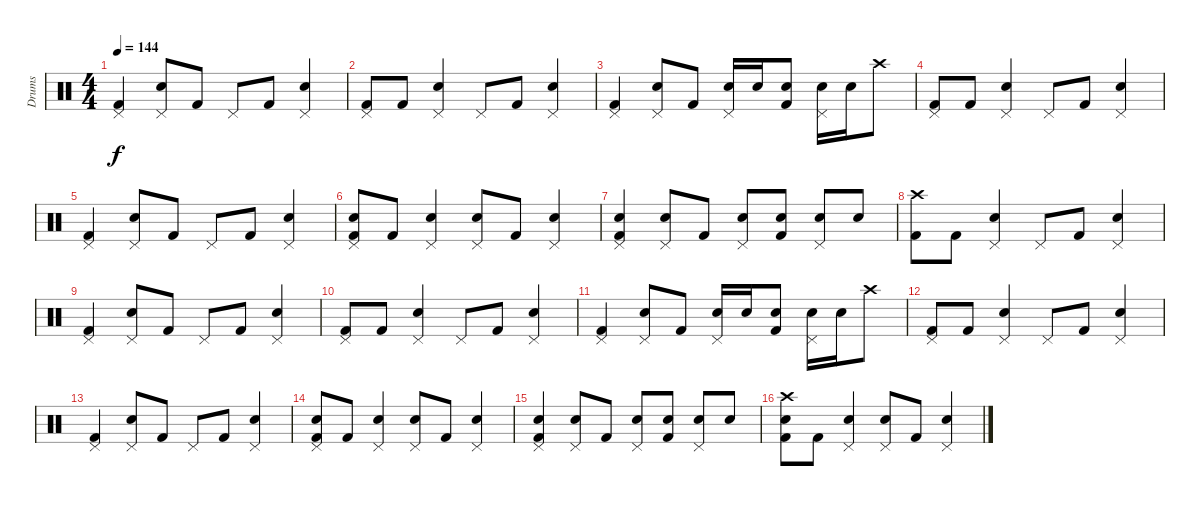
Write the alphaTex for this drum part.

\track ("Drums" "Drums") {instrument percussion}
\staff {score}
\articulation defaults
\ts (4 4)
\tempo 144
\clef neutral
\ks c
("Kick (hit) 2" "Pedal Hi-Hat (hit)").4{dy f} ("Electric Snare (hit)" "Pedal Hi-Hat (hit)").8 "Kick (hit) 2".8 "Pedal Hi-Hat (hit)".8 "Kick (hit) 2".8 ("Electric Snare (hit)" "Pedal Hi-Hat (hit)").4 |
("Pedal Hi-Hat (hit)" "Kick (hit) 2").8 "Kick (hit) 2".8 ("Pedal Hi-Hat (hit)" "Electric Snare (hit)").4 "Pedal Hi-Hat (hit)".8 "Kick (hit) 2".8 ("Pedal Hi-Hat (hit)" "Electric Snare (hit)").4 |
("Kick (hit) 2" "Pedal Hi-Hat (hit)").4 ("Electric Snare (hit)" "Pedal Hi-Hat (hit)").8 "Kick (hit) 2".8 ("Electric Snare (hit)" "Pedal Hi-Hat (hit)").16 "Electric Snare (hit)".16 ("Electric Snare (hit)" "Kick (hit) 2").8 ("Electric Snare (hit)" "Pedal Hi-Hat (hit)").16 "Electric Snare (hit)".16 "Crash high (hit)".8 |
("Pedal Hi-Hat (hit)" "Kick (hit) 2").8 "Kick (hit) 2".8 ("Pedal Hi-Hat (hit)" "Electric Snare (hit)").4 "Pedal Hi-Hat (hit)".8 "Kick (hit) 2".8 ("Pedal Hi-Hat (hit)" "Electric Snare (hit)").4 |
("Kick (hit) 2" "Pedal Hi-Hat (hit)").4 ("Electric Snare (hit)" "Pedal Hi-Hat (hit)").8 "Kick (hit) 2".8 "Pedal Hi-Hat (hit)".8 "Kick (hit) 2".8 ("Electric Snare (hit)" "Pedal Hi-Hat (hit)").4 |
("Electric Snare (hit)" "Pedal Hi-Hat (hit)" "Kick (hit) 2").8 "Kick (hit) 2".8 ("Pedal Hi-Hat (hit)" "Electric Snare (hit)").4 ("Electric Snare (hit)" "Pedal Hi-Hat (hit)").8 "Kick (hit) 2".8 ("Pedal Hi-Hat (hit)" "Electric Snare (hit)").4 |
("Electric Snare (hit)" "Kick (hit) 2" "Pedal Hi-Hat (hit)").4 ("Electric Snare (hit)" "Pedal Hi-Hat (hit)").8 "Kick (hit) 2".8 ("Electric Snare (hit)" "Pedal Hi-Hat (hit)").8 ("Electric Snare (hit)" "Kick (hit) 2").8 ("Electric Snare (hit)" "Pedal Hi-Hat (hit)").8 "Electric Snare (hit)".8 |
("Crash high (hit)" "Kick (hit) 2").8 "Kick (hit) 2".8 ("Pedal Hi-Hat (hit)" "Electric Snare (hit)").4 "Pedal Hi-Hat (hit)".8 "Kick (hit) 2".8 ("Pedal Hi-Hat (hit)" "Electric Snare (hit)").4 |
("Kick (hit) 2" "Pedal Hi-Hat (hit)").4 ("Electric Snare (hit)" "Pedal Hi-Hat (hit)").8 "Kick (hit) 2".8 "Pedal Hi-Hat (hit)".8 "Kick (hit) 2".8 ("Electric Snare (hit)" "Pedal Hi-Hat (hit)").4 |
("Pedal Hi-Hat (hit)" "Kick (hit) 2").8 "Kick (hit) 2".8 ("Pedal Hi-Hat (hit)" "Electric Snare (hit)").4 "Pedal Hi-Hat (hit)".8 "Kick (hit) 2".8 ("Pedal Hi-Hat (hit)" "Electric Snare (hit)").4 |
("Kick (hit) 2" "Pedal Hi-Hat (hit)").4 ("Electric Snare (hit)" "Pedal Hi-Hat (hit)").8 "Kick (hit) 2".8 ("Electric Snare (hit)" "Pedal Hi-Hat (hit)").16 "Electric Snare (hit)".16 ("Electric Snare (hit)" "Kick (hit) 2").8 ("Electric Snare (hit)" "Pedal Hi-Hat (hit)").16 "Electric Snare (hit)".16 "Crash high (hit)".8 |
("Pedal Hi-Hat (hit)" "Kick (hit) 2").8 "Kick (hit) 2".8 ("Pedal Hi-Hat (hit)" "Electric Snare (hit)").4 "Pedal Hi-Hat (hit)".8 "Kick (hit) 2".8 ("Pedal Hi-Hat (hit)" "Electric Snare (hit)").4 |
("Kick (hit) 2" "Pedal Hi-Hat (hit)").4 ("Electric Snare (hit)" "Pedal Hi-Hat (hit)").8 "Kick (hit) 2".8 "Pedal Hi-Hat (hit)".8 "Kick (hit) 2".8 ("Electric Snare (hit)" "Pedal Hi-Hat (hit)").4 |
("Electric Snare (hit)" "Pedal Hi-Hat (hit)" "Kick (hit) 2").8 "Kick (hit) 2".8 ("Pedal Hi-Hat (hit)" "Electric Snare (hit)").4 ("Electric Snare (hit)" "Pedal Hi-Hat (hit)").8 "Kick (hit) 2".8 ("Pedal Hi-Hat (hit)" "Electric Snare (hit)").4 |
("Electric Snare (hit)" "Kick (hit) 2" "Pedal Hi-Hat (hit)").4 ("Electric Snare (hit)" "Pedal Hi-Hat (hit)").8 "Kick (hit) 2".8 ("Electric Snare (hit)" "Pedal Hi-Hat (hit)").8 ("Electric Snare (hit)" "Kick (hit) 2").8 ("Electric Snare (hit)" "Pedal Hi-Hat (hit)").8 "Electric Snare (hit)".8 |
("Electric Snare (hit)" "Crash high (hit)" "Kick (hit) 2").8 "Kick (hit) 2".8 ("Electric Snare (hit)" "Pedal Hi-Hat (hit)").4 ("Electric Snare (hit)" "Pedal Hi-Hat (hit)").8 "Kick (hit) 2".8 ("Pedal Hi-Hat (hit)" "Electric Snare (hit)").4
